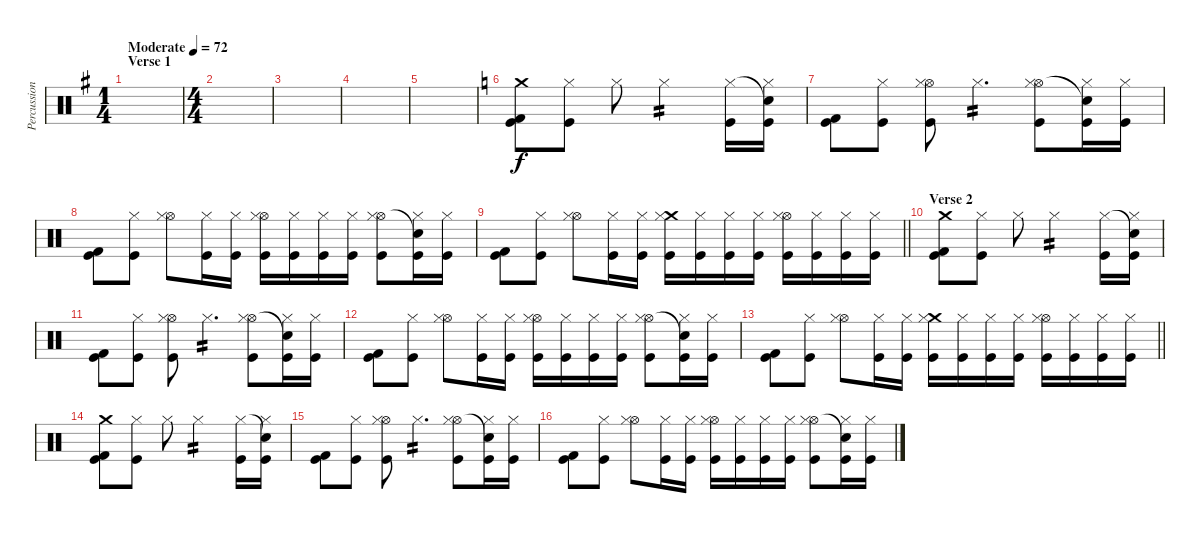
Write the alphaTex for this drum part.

\track ("Percussion" "Percussion") {instrument percussion}
\staff {score}
\articulation defaults
\ts (1 4)
\section ("" "Verse 1")
\tempo (72 "Moderate")
\clef neutral
\ks g
|
\ts (4 4)
|
|
|
|
\ks c
("Crash medium (hit)" "Kick (hit) 2" "Kick (hit)").8 ("Hi-Hat (closed)" "Kick (hit)").8 "Hi-Hat (closed)".8 "Hi-Hat (closed)".2{tp 2} ("Hi-Hat (closed)" "Kick (hit)").16 ("Snare (hit)"{t} "Hi-Hat (closed)" "Kick (hit)").16 |
("Kick (hit) 2" "Kick (hit)").8 ("Hi-Hat (closed)" "Kick (hit)").8 ("Hi-Hat (open)" "Hi-Hat (closed)" "Kick (hit)").8 "Hi-Hat (closed)".4{d tp 2} ("Hi-Hat (open)" "Hi-Hat (closed)" "Kick (hit)").8 ("Snare (hit)"{t} "Hi-Hat (closed)" "Kick (hit)").16 ("Hi-Hat (closed)" "Kick (hit)").16 |
("Kick (hit) 2" "Kick (hit)").8 ("Hi-Hat (closed)" "Kick (hit)").8 ("Hi-Hat (open)" "Hi-Hat (closed)").8 ("Hi-Hat (closed)" "Kick (hit)").16 ("Hi-Hat (closed)" "Kick (hit)").16 ("Hi-Hat (open)" "Hi-Hat (closed)" "Kick (hit)").16 ("Hi-Hat (closed)" "Kick (hit)").16 ("Hi-Hat (closed)" "Kick (hit)").16 ("Hi-Hat (closed)" "Kick (hit)").16 ("Hi-Hat (open)" "Hi-Hat (closed)" "Kick (hit)").8 ("Snare (hit)"{t} "Hi-Hat (closed)" "Kick (hit)").16 ("Hi-Hat (closed)" "Kick (hit)").16 |
\barLineRight lightlight
("Kick (hit) 2" "Kick (hit)").8 ("Hi-Hat (closed)" "Kick (hit)").8 ("Hi-Hat (open)" "Hi-Hat (closed)").8 ("Hi-Hat (closed)" "Kick (hit)").16 ("Hi-Hat (closed)" "Kick (hit)").16 ("Crash medium (hit)" "Hi-Hat (closed)" "Kick (hit)").16 ("Hi-Hat (closed)" "Kick (hit)").16 ("Hi-Hat (closed)" "Kick (hit)").16 ("Hi-Hat (closed)" "Kick (hit)").16 ("Hi-Hat (open)" "Hi-Hat (closed)" "Kick (hit)").16 ("Hi-Hat (closed)" "Kick (hit)").16 ("Hi-Hat (closed)" "Kick (hit)").16 ("Hi-Hat (closed)" "Kick (hit)").16 |
\section ("" "Verse 2")
("Crash medium (hit)" "Kick (hit) 2" "Kick (hit)").8 ("Hi-Hat (closed)" "Kick (hit)").8 "Hi-Hat (closed)".8 "Hi-Hat (closed)".2{tp 2} ("Hi-Hat (closed)" "Kick (hit)").16 ("Snare (hit)"{t} "Hi-Hat (closed)" "Kick (hit)").16 |
("Kick (hit) 2" "Kick (hit)").8 ("Hi-Hat (closed)" "Kick (hit)").8 ("Hi-Hat (open)" "Hi-Hat (closed)" "Kick (hit)").8 "Hi-Hat (closed)".4{d tp 2} ("Hi-Hat (open)" "Hi-Hat (closed)" "Kick (hit)").8 ("Snare (hit)"{t} "Hi-Hat (closed)" "Kick (hit)").16 ("Hi-Hat (closed)" "Kick (hit)").16 |
("Kick (hit) 2" "Kick (hit)").8 ("Hi-Hat (closed)" "Kick (hit)").8 ("Hi-Hat (open)" "Hi-Hat (closed)").8 ("Hi-Hat (closed)" "Kick (hit)").16 ("Hi-Hat (closed)" "Kick (hit)").16 ("Hi-Hat (open)" "Hi-Hat (closed)" "Kick (hit)").16 ("Hi-Hat (closed)" "Kick (hit)").16 ("Hi-Hat (closed)" "Kick (hit)").16 ("Hi-Hat (closed)" "Kick (hit)").16 ("Hi-Hat (open)" "Hi-Hat (closed)" "Kick (hit)").8 ("Snare (hit)"{t} "Hi-Hat (closed)" "Kick (hit)").16 ("Hi-Hat (closed)" "Kick (hit)").16 |
\barLineRight lightlight
("Kick (hit) 2" "Kick (hit)").8 ("Hi-Hat (closed)" "Kick (hit)").8 ("Hi-Hat (open)" "Hi-Hat (closed)").8 ("Hi-Hat (closed)" "Kick (hit)").16 ("Hi-Hat (closed)" "Kick (hit)").16 ("Crash medium (hit)" "Hi-Hat (closed)" "Kick (hit)").16 ("Hi-Hat (closed)" "Kick (hit)").16 ("Hi-Hat (closed)" "Kick (hit)").16 ("Hi-Hat (closed)" "Kick (hit)").16 ("Hi-Hat (open)" "Hi-Hat (closed)" "Kick (hit)").16 ("Hi-Hat (closed)" "Kick (hit)").16 ("Hi-Hat (closed)" "Kick (hit)").16 ("Hi-Hat (closed)" "Kick (hit)").16 |
("Crash medium (hit)" "Kick (hit) 2" "Kick (hit)").8 ("Hi-Hat (closed)" "Kick (hit)").8 "Hi-Hat (closed)".8 "Hi-Hat (closed)".2{tp 2} ("Hi-Hat (closed)" "Kick (hit)").16 ("Snare (hit)"{t} "Hi-Hat (closed)" "Kick (hit)").16 |
("Kick (hit) 2" "Kick (hit)").8 ("Hi-Hat (closed)" "Kick (hit)").8 ("Hi-Hat (open)" "Hi-Hat (closed)" "Kick (hit)").8 "Hi-Hat (closed)".4{d tp 2} ("Hi-Hat (open)" "Hi-Hat (closed)" "Kick (hit)").8 ("Snare (hit)"{t} "Hi-Hat (closed)" "Kick (hit)").16 ("Hi-Hat (closed)" "Kick (hit)").16 |
("Kick (hit) 2" "Kick (hit)").8 ("Hi-Hat (closed)" "Kick (hit)").8 ("Hi-Hat (open)" "Hi-Hat (closed)").8 ("Hi-Hat (closed)" "Kick (hit)").16 ("Hi-Hat (closed)" "Kick (hit)").16 ("Hi-Hat (open)" "Hi-Hat (closed)" "Kick (hit)").16 ("Hi-Hat (closed)" "Kick (hit)").16 ("Hi-Hat (closed)" "Kick (hit)").16 ("Hi-Hat (closed)" "Kick (hit)").16 ("Hi-Hat (open)" "Hi-Hat (closed)" "Kick (hit)").8 ("Snare (hit)"{t} "Hi-Hat (closed)" "Kick (hit)").16 ("Hi-Hat (closed)" "Kick (hit)").16
